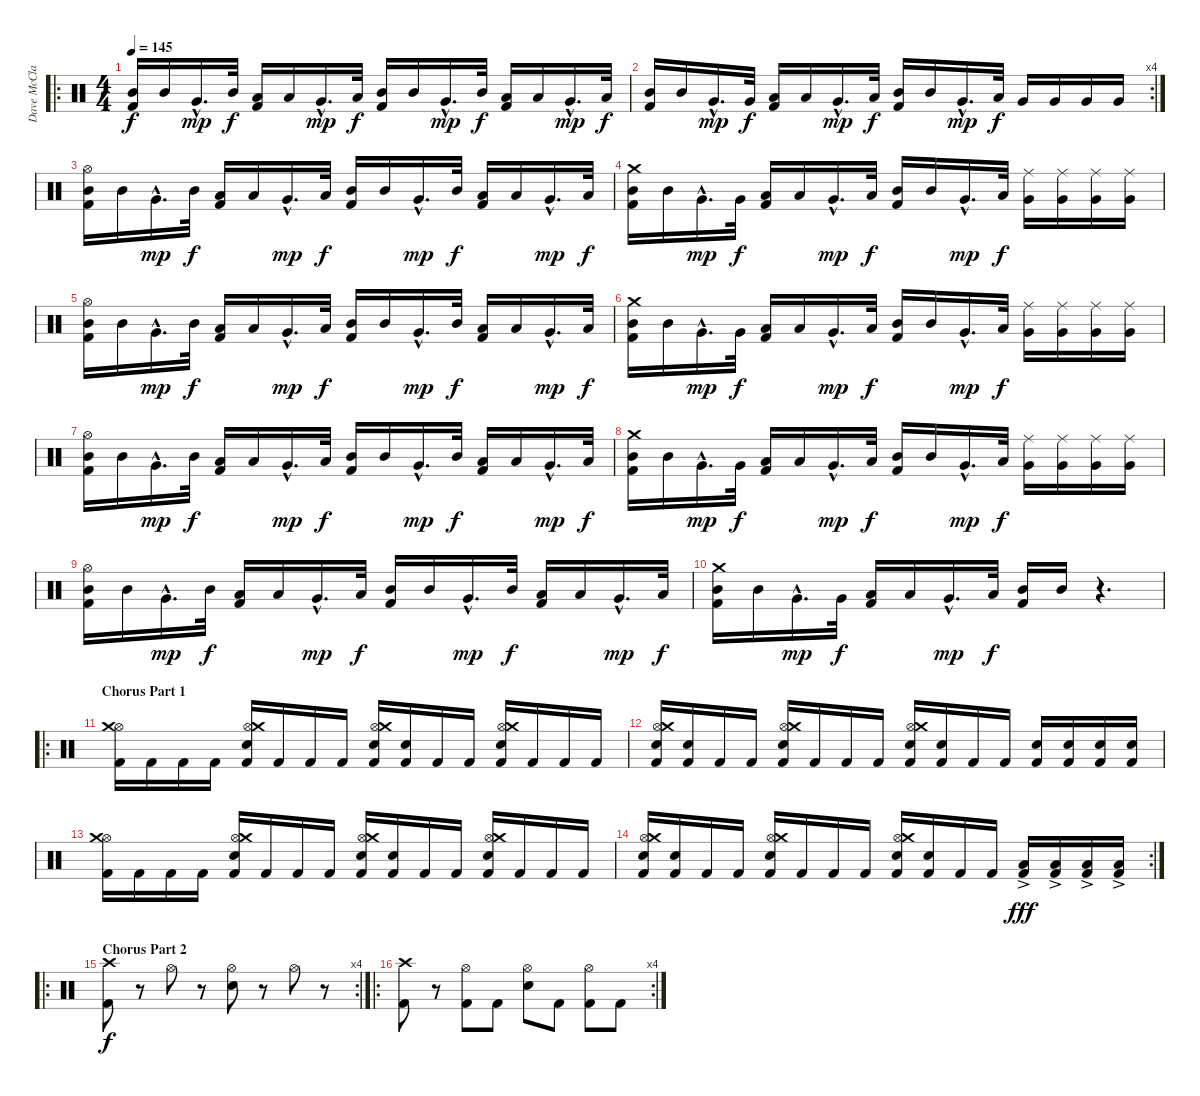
\track ("Dave McClain" "Dave McCla") {instrument percussion}
\staff {score}
\articulation defaults
\ro
\ts (4 4)
\tempo 145
\clef neutral
\ks c
("Mid Tom (hit)" "Kick (hit) 2").16{dy f} "Mid Tom (hit)".16 "Very Low Tom (hit)"{hac}.16{d dy mp} "Mid Tom (hit)".32{dy f} ("Low Tom (hit)" "Kick (hit) 2").16 "Low Tom (hit)".16 "Very Low Tom (hit)"{hac}.16{d dy mp} "Low Tom (hit)".32{dy f} ("Mid Tom (hit)" "Kick (hit) 2").16 "Mid Tom (hit)".16 "Very Low Tom (hit)"{hac}.16{d dy mp} "Mid Tom (hit)".32{dy f} ("Low Tom (hit)" "Kick (hit) 2").16 "Low Tom (hit)".16 "Very Low Tom (hit)"{hac}.16{d dy mp} "Low Tom (hit)".32{dy f} |
\rc 4
("Mid Tom (hit)" "Kick (hit) 2").16 "Mid Tom (hit)".16 "Very Low Tom (hit)"{hac}.16{d dy mp} "Very Low Tom (hit)".32{dy f} ("Low Tom (hit)" "Kick (hit) 2").16 "Low Tom (hit)".16 "Very Low Tom (hit)"{hac}.16{d dy mp} "Low Tom (hit)".32{dy f} ("Mid Tom (hit)" "Kick (hit) 2").16 "Mid Tom (hit)".16 "Very Low Tom (hit)"{hac}.16{d dy mp} "Low Tom (hit)".32{dy f} "Very Low Tom (hit)".16 "Very Low Tom (hit)".16 "Very Low Tom (hit)".16 "Very Low Tom (hit)".16 |
("Hi-Hat (open)" "Mid Tom (hit)" "Kick (hit) 2").16 "Mid Tom (hit)".16 "Very Low Tom (hit)"{hac}.16{d dy mp} "Mid Tom (hit)".32{dy f} ("Low Tom (hit)" "Kick (hit) 2").16 "Low Tom (hit)".16 "Very Low Tom (hit)"{hac}.16{d dy mp} "Low Tom (hit)".32{dy f} ("Mid Tom (hit)" "Kick (hit) 2").16 "Mid Tom (hit)".16 "Very Low Tom (hit)"{hac}.16{d dy mp} "Mid Tom (hit)".32{dy f} ("Low Tom (hit)" "Kick (hit) 2").16 "Low Tom (hit)".16 "Very Low Tom (hit)"{hac}.16{d dy mp} "Low Tom (hit)".32{dy f} |
("Crash medium (hit)" "Mid Tom (hit)" "Kick (hit) 2").16 "Mid Tom (hit)".16 "Very Low Tom (hit)"{hac}.16{d dy mp} "Very Low Tom (hit)".32{dy f} ("Low Tom (hit)" "Kick (hit) 2").16 "Low Tom (hit)".16 "Very Low Tom (hit)"{hac}.16{d dy mp} "Low Tom (hit)".32{dy f} ("Mid Tom (hit)" "Kick (hit) 2").16 "Mid Tom (hit)".16 "Very Low Tom (hit)"{hac}.16{d dy mp} "Low Tom (hit)".32{dy f} ("Ride (middle)" "Very Low Tom (hit)").16 ("Ride (middle)" "Very Low Tom (hit)").16 ("Ride (middle)" "Very Low Tom (hit)").16 ("Ride (middle)" "Very Low Tom (hit)").16 |
("Hi-Hat (open)" "Mid Tom (hit)" "Kick (hit) 2").16 "Mid Tom (hit)".16 "Very Low Tom (hit)"{hac}.16{d dy mp} "Mid Tom (hit)".32{dy f} ("Low Tom (hit)" "Kick (hit) 2").16 "Low Tom (hit)".16 "Very Low Tom (hit)"{hac}.16{d dy mp} "Low Tom (hit)".32{dy f} ("Mid Tom (hit)" "Kick (hit) 2").16 "Mid Tom (hit)".16 "Very Low Tom (hit)"{hac}.16{d dy mp} "Mid Tom (hit)".32{dy f} ("Low Tom (hit)" "Kick (hit) 2").16 "Low Tom (hit)".16 "Very Low Tom (hit)"{hac}.16{d dy mp} "Low Tom (hit)".32{dy f} |
("Crash medium (hit)" "Mid Tom (hit)" "Kick (hit) 2").16 "Mid Tom (hit)".16 "Very Low Tom (hit)"{hac}.16{d dy mp} "Very Low Tom (hit)".32{dy f} ("Low Tom (hit)" "Kick (hit) 2").16 "Low Tom (hit)".16 "Very Low Tom (hit)"{hac}.16{d dy mp} "Low Tom (hit)".32{dy f} ("Mid Tom (hit)" "Kick (hit) 2").16 "Mid Tom (hit)".16 "Very Low Tom (hit)"{hac}.16{d dy mp} "Low Tom (hit)".32{dy f} ("Ride (middle)" "Very Low Tom (hit)").16 ("Ride (middle)" "Very Low Tom (hit)").16 ("Ride (middle)" "Very Low Tom (hit)").16 ("Ride (middle)" "Very Low Tom (hit)").16 |
("Hi-Hat (open)" "Mid Tom (hit)" "Kick (hit) 2").16 "Mid Tom (hit)".16 "Very Low Tom (hit)"{hac}.16{d dy mp} "Mid Tom (hit)".32{dy f} ("Low Tom (hit)" "Kick (hit) 2").16 "Low Tom (hit)".16 "Very Low Tom (hit)"{hac}.16{d dy mp} "Low Tom (hit)".32{dy f} ("Mid Tom (hit)" "Kick (hit) 2").16 "Mid Tom (hit)".16 "Very Low Tom (hit)"{hac}.16{d dy mp} "Mid Tom (hit)".32{dy f} ("Low Tom (hit)" "Kick (hit) 2").16 "Low Tom (hit)".16 "Very Low Tom (hit)"{hac}.16{d dy mp} "Low Tom (hit)".32{dy f} |
("Crash medium (hit)" "Mid Tom (hit)" "Kick (hit) 2").16 "Mid Tom (hit)".16 "Very Low Tom (hit)"{hac}.16{d dy mp} "Very Low Tom (hit)".32{dy f} ("Low Tom (hit)" "Kick (hit) 2").16 "Low Tom (hit)".16 "Very Low Tom (hit)"{hac}.16{d dy mp} "Low Tom (hit)".32{dy f} ("Mid Tom (hit)" "Kick (hit) 2").16 "Mid Tom (hit)".16 "Very Low Tom (hit)"{hac}.16{d dy mp} "Low Tom (hit)".32{dy f} ("Ride (middle)" "Very Low Tom (hit)").16 ("Ride (middle)" "Very Low Tom (hit)").16 ("Ride (middle)" "Very Low Tom (hit)").16 ("Ride (middle)" "Very Low Tom (hit)").16 |
("Hi-Hat (open)" "Mid Tom (hit)" "Kick (hit) 2").16 "Mid Tom (hit)".16 "Very Low Tom (hit)"{hac}.16{d dy mp} "Mid Tom (hit)".32{dy f} ("Low Tom (hit)" "Kick (hit) 2").16 "Low Tom (hit)".16 "Very Low Tom (hit)"{hac}.16{d dy mp} "Low Tom (hit)".32{dy f} ("Mid Tom (hit)" "Kick (hit) 2").16 "Mid Tom (hit)".16 "Very Low Tom (hit)"{hac}.16{d dy mp} "Mid Tom (hit)".32{dy f} ("Low Tom (hit)" "Kick (hit) 2").16 "Low Tom (hit)".16 "Very Low Tom (hit)"{hac}.16{d dy mp} "Low Tom (hit)".32{dy f} |
("Crash medium (hit)" "Mid Tom (hit)" "Kick (hit) 2").16 "Mid Tom (hit)".16 "Very Low Tom (hit)"{hac}.16{d dy mp} "Very Low Tom (hit)".32{dy f} ("Low Tom (hit)" "Kick (hit) 2").16 "Low Tom (hit)".16 "Very Low Tom (hit)"{hac}.16{d dy mp} "Low Tom (hit)".32{dy f} ("Mid Tom (hit)" "Kick (hit) 2").16 "Mid Tom (hit)".16 r.4{d} |
\ro
\section ("" "Chorus Part 1")
("Hi-Hat (open)" "Crash medium (hit)" "Kick (hit) 2").16 "Kick (hit) 2".16 "Kick (hit) 2".16 "Kick (hit) 2".16 ("Hi-Hat (open)" "Crash medium (hit)" "Snare (hit) 2" "Kick (hit) 2").16 "Kick (hit) 2".16 "Kick (hit) 2".16 "Kick (hit) 2".16 ("Hi-Hat (open)" "Crash medium (hit)" "Snare (hit) 2" "Kick (hit) 2").16 ("Snare (hit) 2" "Kick (hit) 2").16 "Kick (hit) 2".16 "Kick (hit) 2".16 ("Hi-Hat (open)" "Crash medium (hit)" "Snare (hit) 2" "Kick (hit) 2").16 "Kick (hit) 2".16 "Kick (hit) 2".16 "Kick (hit) 2".16 |
("Hi-Hat (open)" "Crash medium (hit)" "Snare (hit) 2" "Kick (hit) 2").16 ("Snare (hit) 2" "Kick (hit) 2").16 "Kick (hit) 2".16 "Kick (hit) 2".16 ("Hi-Hat (open)" "Crash medium (hit)" "Snare (hit) 2" "Kick (hit) 2").16 "Kick (hit) 2".16 "Kick (hit) 2".16 "Kick (hit) 2".16 ("Hi-Hat (open)" "Crash medium (hit)" "Snare (hit) 2" "Kick (hit) 2").16 ("Snare (hit) 2" "Kick (hit) 2").16 "Kick (hit) 2".16 "Kick (hit) 2".16 ("Snare (hit) 2" "Kick (hit) 2").16 ("Snare (hit) 2" "Kick (hit) 2").16 ("Snare (hit) 2" "Kick (hit) 2").16 ("Snare (hit) 2" "Kick (hit) 2").16 |
("Hi-Hat (open)" "Crash medium (hit)" "Kick (hit) 2").16 "Kick (hit) 2".16 "Kick (hit) 2".16 "Kick (hit) 2".16 ("Hi-Hat (open)" "Crash medium (hit)" "Snare (hit) 2" "Kick (hit) 2").16 "Kick (hit) 2".16 "Kick (hit) 2".16 "Kick (hit) 2".16 ("Hi-Hat (open)" "Crash medium (hit)" "Snare (hit) 2" "Kick (hit) 2").16 ("Snare (hit) 2" "Kick (hit) 2").16 "Kick (hit) 2".16 "Kick (hit) 2".16 ("Hi-Hat (open)" "Crash medium (hit)" "Snare (hit) 2" "Kick (hit) 2").16 "Kick (hit) 2".16 "Kick (hit) 2".16 "Kick (hit) 2".16 |
\rc 2
("Hi-Hat (open)" "Crash medium (hit)" "Snare (hit) 2" "Kick (hit) 2").16 ("Snare (hit) 2" "Kick (hit) 2").16 "Kick (hit) 2".16 "Kick (hit) 2".16 ("Hi-Hat (open)" "Crash medium (hit)" "Snare (hit) 2" "Kick (hit) 2").16 "Kick (hit) 2".16 "Kick (hit) 2".16 "Kick (hit) 2".16 ("Hi-Hat (open)" "Crash medium (hit)" "Snare (hit) 2" "Kick (hit) 2").16 ("Snare (hit) 2" "Kick (hit) 2").16 "Kick (hit) 2".16 "Kick (hit) 2".16 ("Low Tom (hit)"{ac} "Kick (hit) 2").16{dy fff} ("Low Tom (hit)"{ac} "Kick (hit) 2").16 ("Low Tom (hit)"{ac} "Kick (hit) 2").16 ("Low Tom (hit)"{ac} "Kick (hit) 2").16 |
\ro
\rc 4
\section ("" "Chorus Part 2")
("Crash high (hit)" "Kick (hit) 2").8{dy f} r.8 "Hi-Hat (open)".8 r.8 ("Hi-Hat (open)" "Snare (hit) 2").8 r.8 "Hi-Hat (open)".8 r.8 |
\ro
\rc 4
("Crash high (hit)" "Kick (hit) 2").8 r.8 ("Hi-Hat (open)" "Kick (hit) 2").8 "Kick (hit) 2".8 ("Hi-Hat (open)" "Snare (hit) 2").8 "Kick (hit) 2".8 ("Hi-Hat (open)" "Kick (hit) 2").8 "Kick (hit) 2".8
